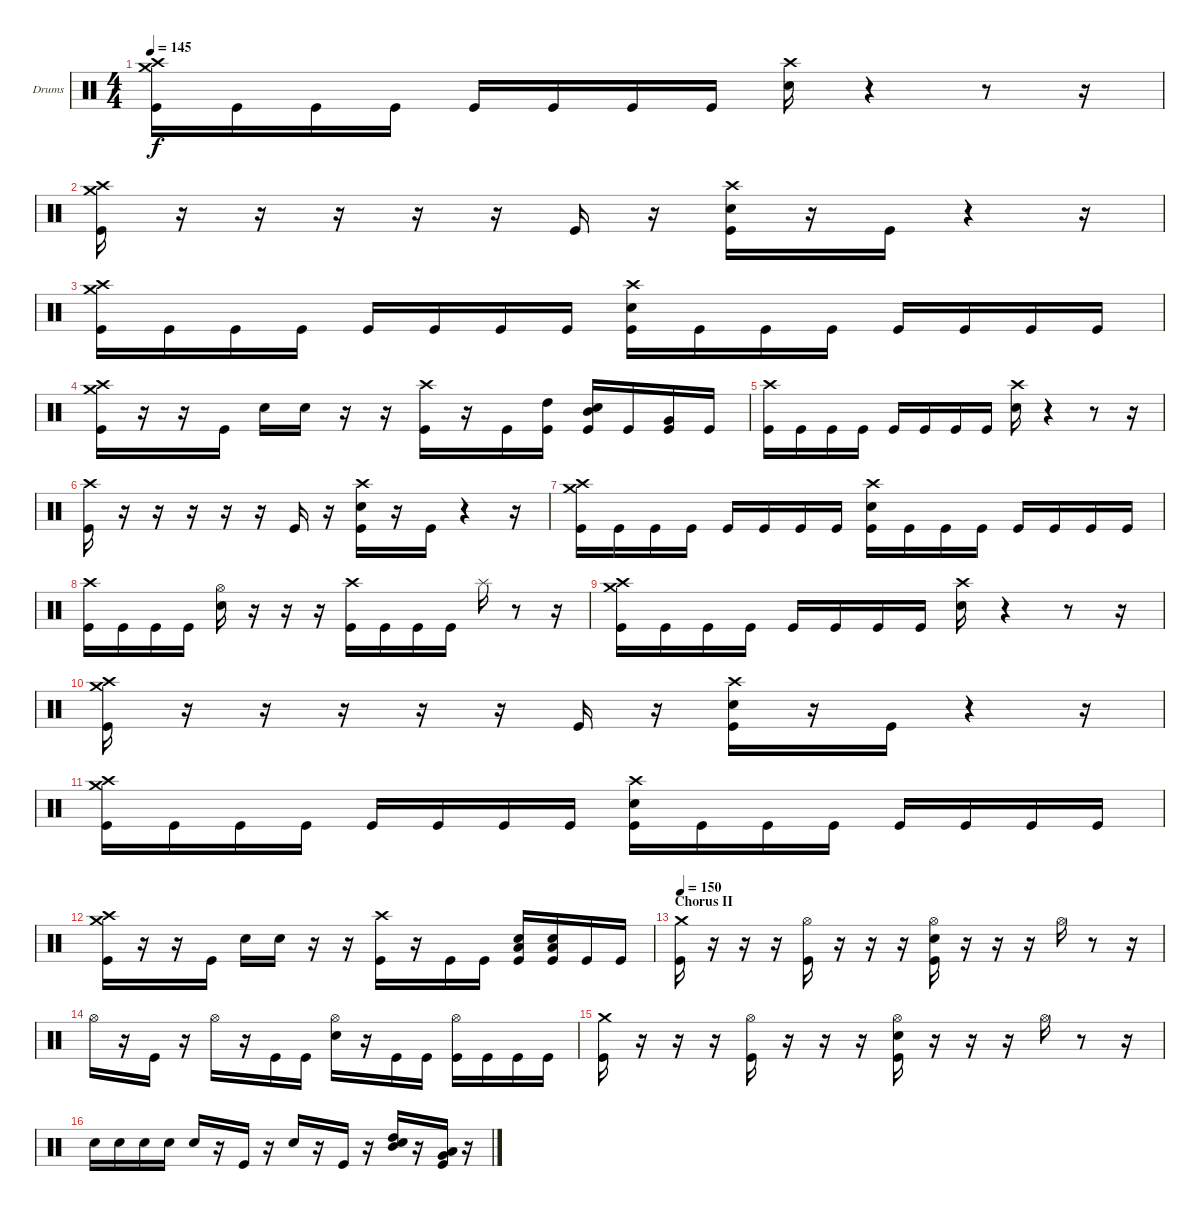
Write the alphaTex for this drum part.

\bracketExtendMode groupsimilarinstruments
\firstSystemTrackNameOrientation horizontal
\otherSystemsTrackNameOrientation horizontal
\track ("Cory La Quay" "Drums") {instrument percussion}
\staff {score}
\articulation defaults
\ts (4 4)
\tempo 145
\clef neutral
\ks c
("Crash medium (hit)" "Crash high (hit)" "Kick (hit)").16{dy f} "Kick (hit)".16 "Kick (hit)".16 "Kick (hit)".16 "Kick (hit)".16 "Kick (hit)".16 "Kick (hit)".16 "Kick (hit)".16 ("Crash high (hit)" "Snare (hit) 2").16 r.4 r.8 r.16 |
("Crash medium (hit)" "Crash high (hit)" "Kick (hit)").16 r.16 r.16 r.16 r.16 r.16 "Kick (hit)".16 r.16 ("Crash high (hit)" "Snare (hit) 2" "Kick (hit)").16 r.16 "Kick (hit)".16 r.4 r.16 |
("Crash high (hit)" "Crash medium (hit)" "Kick (hit)").16 "Kick (hit)".16 "Kick (hit)".16 "Kick (hit)".16 "Kick (hit)".16 "Kick (hit)".16 "Kick (hit)".16 "Kick (hit)".16 ("Crash high (hit)" "Snare (hit) 2" "Kick (hit)").16 "Kick (hit)".16 "Kick (hit)".16 "Kick (hit)".16 "Kick (hit)".16 "Kick (hit)".16 "Kick (hit)".16 "Kick (hit)".16 |
("Crash high (hit)" "Crash medium (hit)" "Kick (hit)").16 r.16 r.16 "Kick (hit)".16 "Snare (hit) 2".16 "Snare (hit) 2".16 r.16 r.16 ("Crash high (hit)" "Kick (hit)").16 r.16 "Kick (hit)".16 ("Kick (hit)" "High Tom (hit)").16 ("Snare (hit) 2" "Kick (hit)" "Mid Tom (hit)").16 "Kick (hit)".16 ("Kick (hit)" "Very Low Tom (hit)").16 "Kick (hit)".16 |
("Crash high (hit)" "Kick (hit)").16 "Kick (hit)".16 "Kick (hit)".16 "Kick (hit)".16 "Kick (hit)".16 "Kick (hit)".16 "Kick (hit)".16 "Kick (hit)".16 ("Crash high (hit)" "Snare (hit) 2").16 r.4 r.8 r.16 |
("Crash high (hit)" "Kick (hit)").16 r.16 r.16 r.16 r.16 r.16 "Kick (hit)".16 r.16 ("Crash high (hit)" "Snare (hit) 2" "Kick (hit)").16 r.16 "Kick (hit)".16 r.4 r.16 |
("Crash high (hit)" "Crash medium (hit)" "Kick (hit)").16 "Kick (hit)".16 "Kick (hit)".16 "Kick (hit)".16 "Kick (hit)".16 "Kick (hit)".16 "Kick (hit)".16 "Kick (hit)".16 ("Crash high (hit)" "Snare (hit) 2" "Kick (hit)").16 "Kick (hit)".16 "Kick (hit)".16 "Kick (hit)".16 "Kick (hit)".16 "Kick (hit)".16 "Kick (hit)".16 "Kick (hit)".16 |
("Crash high (hit)" "Kick (hit)").16 "Kick (hit)".16 "Kick (hit)".16 "Kick (hit)".16 ("Hi-Hat (open)" "Snare (hit) 2").16 r.16 r.16 r.16 ("Crash high (hit)" "Kick (hit)").16 "Kick (hit)".16 "Kick (hit)".16 "Kick (hit)".16 "Splash (hit)".16 r.8 r.16 |
("Crash medium (hit)" "Crash high (hit)" "Kick (hit)").16 "Kick (hit)".16 "Kick (hit)".16 "Kick (hit)".16 "Kick (hit)".16 "Kick (hit)".16 "Kick (hit)".16 "Kick (hit)".16 ("Crash high (hit)" "Snare (hit) 2").16 r.4 r.8 r.16 |
("Crash medium (hit)" "Crash high (hit)" "Kick (hit)").16 r.16 r.16 r.16 r.16 r.16 "Kick (hit)".16 r.16 ("Crash high (hit)" "Snare (hit) 2" "Kick (hit)").16 r.16 "Kick (hit)".16 r.4 r.16 |
("Crash high (hit)" "Crash medium (hit)" "Kick (hit)").16 "Kick (hit)".16 "Kick (hit)".16 "Kick (hit)".16 "Kick (hit)".16 "Kick (hit)".16 "Kick (hit)".16 "Kick (hit)".16 ("Crash high (hit)" "Snare (hit) 2" "Kick (hit)").16 "Kick (hit)".16 "Kick (hit)".16 "Kick (hit)".16 "Kick (hit)".16 "Kick (hit)".16 "Kick (hit)".16 "Kick (hit)".16 |
("Crash high (hit)" "Crash medium (hit)" "Kick (hit)").16 r.16 r.16 "Kick (hit)".16 "Snare (hit) 2".16 "Snare (hit) 2".16 r.16 r.16 ("Crash high (hit)" "Kick (hit)").16 r.16 "Kick (hit)".16 "Kick (hit)".16 ("Snare (hit) 2" "Kick (hit)" "Low Tom (hit)").16 ("Kick (hit)" "Snare (hit) 2" "Low Tom (hit)").16 "Kick (hit)".16 "Kick (hit)".16 |
\section ("" "Chorus II")
\tempo 150
("Crash medium (hit)" "Kick (hit)").16 r.16 r.16 r.16 ("Hi-Hat (open)" "Kick (hit)").16 r.16 r.16 r.16 ("Hi-Hat (open)" "Snare (hit) 2" "Kick (hit)").16 r.16 r.16 r.16 "Hi-Hat (open)".16 r.8 r.16 |
"Hi-Hat (open)".16 r.16 "Kick (hit)".16 r.16 "Hi-Hat (open)".16 r.16 "Kick (hit)".16 "Kick (hit)".16 ("Hi-Hat (open)" "Snare (hit) 2").16 r.16 "Kick (hit)".16 "Kick (hit)".16 ("Hi-Hat (open)" "Kick (hit)").16 "Kick (hit)".16 "Kick (hit)".16 "Kick (hit)".16 |
("Crash medium (hit)" "Kick (hit)").16 r.16 r.16 r.16 ("Hi-Hat (open)" "Kick (hit)").16 r.16 r.16 r.16 ("Hi-Hat (open)" "Snare (hit) 2" "Kick (hit)").16 r.16 r.16 r.16 "Hi-Hat (open)".16 r.8 r.16 |
"Snare (hit) 2".16 "Snare (hit) 2".16 "Snare (hit) 2".16 "Snare (hit) 2".16 "Snare (hit) 2".16 r.16 "Kick (hit)".16 r.16 "Snare (hit) 2".16 r.16 "Kick (hit)".16 r.16 ("Snare (hit) 2" "High Tom (hit)" "Mid Tom (hit)").16 r.16 ("Kick (hit)" "Low Tom (hit)" "Very Low Tom (hit)").16 r.16
